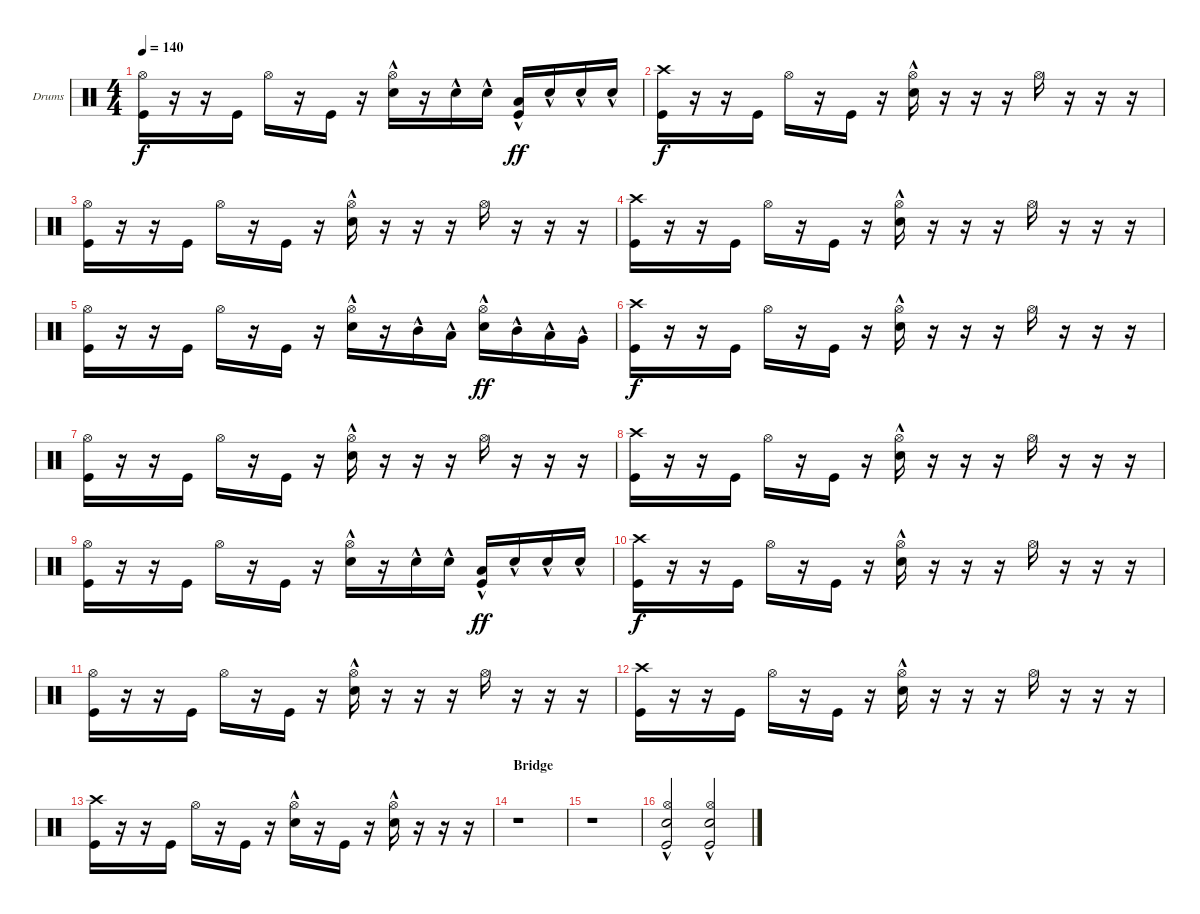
\defaultSystemsLayout 4
\bracketExtendMode groupsimilarinstruments
\firstSystemTrackNameOrientation horizontal
\otherSystemsTrackNameOrientation horizontal
\track ("Drumkit - Paul" "Drums") {instrument percussion}
\staff {score}
\articulation defaults
\ts (4 4)
\tempo 140
\clef neutral
\ks c
("Kick (hit)" "Hi-Hat (open)").16{dy f} r.16 r.16 "Kick (hit)".16 "Hi-Hat (open)".16 r.16 "Kick (hit)".16 r.16 ("Snare (hit) 2"{hac} "Hi-Hat (open)").16 r.16 "Snare (hit) 2"{hac}.16 "Snare (hit) 2"{hac}.16 ("Kick (hit)"{hac} "Low Tom (hit)"{hac}).16{dy ff} "Snare (hit) 2"{hac}.16 "Snare (hit) 2"{hac}.16 "Snare (hit) 2"{hac}.16 |
("Crash high (hit)" "Kick (hit)").16{dy f} r.16 r.16 "Kick (hit)".16 "Hi-Hat (open)".16 r.16 "Kick (hit)".16 r.16 ("Snare (hit) 2"{hac} "Hi-Hat (open)").16 r.16 r.16 r.16 "Hi-Hat (open)".16 r.16 r.16 r.16 |
("Kick (hit)" "Hi-Hat (open)").16 r.16 r.16 "Kick (hit)".16 "Hi-Hat (open)".16 r.16 "Kick (hit)".16 r.16 ("Snare (hit) 2"{hac} "Hi-Hat (open)").16 r.16 r.16 r.16 "Hi-Hat (open)".16 r.16 r.16 r.16 |
("Crash high (hit)" "Kick (hit)").16 r.16 r.16 "Kick (hit)".16 "Hi-Hat (open)".16 r.16 "Kick (hit)".16 r.16 ("Snare (hit) 2"{hac} "Hi-Hat (open)").16 r.16 r.16 r.16 "Hi-Hat (open)".16 r.16 r.16 r.16 |
("Kick (hit)" "Hi-Hat (open)").16 r.16 r.16 "Kick (hit)".16 "Hi-Hat (open)".16 r.16 "Kick (hit)".16 r.16 ("Snare (hit) 2"{hac} "Hi-Hat (open)").16 r.16 "Mid Tom (hit)"{hac}.16 "Low Tom (hit)"{hac}.16 ("Snare (hit) 2"{hac} "Hi-Hat (open)").16{dy ff} "Mid Tom (hit)"{hac}.16 "Low Tom (hit)"{hac}.16 "Very Low Tom (hit)"{hac}.16 |
("Crash high (hit)" "Kick (hit)").16{dy f} r.16 r.16 "Kick (hit)".16 "Hi-Hat (open)".16 r.16 "Kick (hit)".16 r.16 ("Snare (hit) 2"{hac} "Hi-Hat (open)").16 r.16 r.16 r.16 "Hi-Hat (open)".16 r.16 r.16 r.16 |
("Kick (hit)" "Hi-Hat (open)").16 r.16 r.16 "Kick (hit)".16 "Hi-Hat (open)".16 r.16 "Kick (hit)".16 r.16 ("Snare (hit) 2"{hac} "Hi-Hat (open)").16 r.16 r.16 r.16 "Hi-Hat (open)".16 r.16 r.16 r.16 |
("Crash high (hit)" "Kick (hit)").16 r.16 r.16 "Kick (hit)".16 "Hi-Hat (open)".16 r.16 "Kick (hit)".16 r.16 ("Snare (hit) 2"{hac} "Hi-Hat (open)").16 r.16 r.16 r.16 "Hi-Hat (open)".16 r.16 r.16 r.16 |
("Kick (hit)" "Hi-Hat (open)").16 r.16 r.16 "Kick (hit)".16 "Hi-Hat (open)".16 r.16 "Kick (hit)".16 r.16 ("Snare (hit) 2"{hac} "Hi-Hat (open)").16 r.16 "Snare (hit) 2"{hac}.16 "Snare (hit) 2"{hac}.16 ("Kick (hit)"{hac} "Low Tom (hit)"{hac}).16{dy ff} "Snare (hit) 2"{hac}.16 "Snare (hit) 2"{hac}.16 "Snare (hit) 2"{hac}.16 |
("Crash high (hit)" "Kick (hit)").16{dy f} r.16 r.16 "Kick (hit)".16 "Hi-Hat (open)".16 r.16 "Kick (hit)".16 r.16 ("Snare (hit) 2"{hac} "Hi-Hat (open)").16 r.16 r.16 r.16 "Hi-Hat (open)".16 r.16 r.16 r.16 |
("Kick (hit)" "Hi-Hat (open)").16 r.16 r.16 "Kick (hit)".16 "Hi-Hat (open)".16 r.16 "Kick (hit)".16 r.16 ("Snare (hit) 2"{hac} "Hi-Hat (open)").16 r.16 r.16 r.16 "Hi-Hat (open)".16 r.16 r.16 r.16 |
("Crash high (hit)" "Kick (hit)").16 r.16 r.16 "Kick (hit)".16 "Hi-Hat (open)".16 r.16 "Kick (hit)".16 r.16 ("Snare (hit) 2"{hac} "Hi-Hat (open)").16 r.16 r.16 r.16 "Hi-Hat (open)".16 r.16 r.16 r.16 |
("Crash high (hit)" "Kick (hit)").16 r.16 r.16 "Kick (hit)".16 "Hi-Hat (open)".16 r.16 "Kick (hit)".16 r.16 ("Snare (hit) 2"{hac} "Hi-Hat (open)").16 r.16 "Kick (hit)".16 r.16 ("Hi-Hat (open)" "Snare (hit) 2"{hac}).16 r.16 r.16 r.16 |
\section ("" "Bridge")
r.1 |
r.1 |
("Snare (hit) 2"{hac} "Kick (hit)" "Hi-Hat (open)").2 ("Snare (hit) 2"{hac} "Kick (hit)" "Hi-Hat (open)").2
